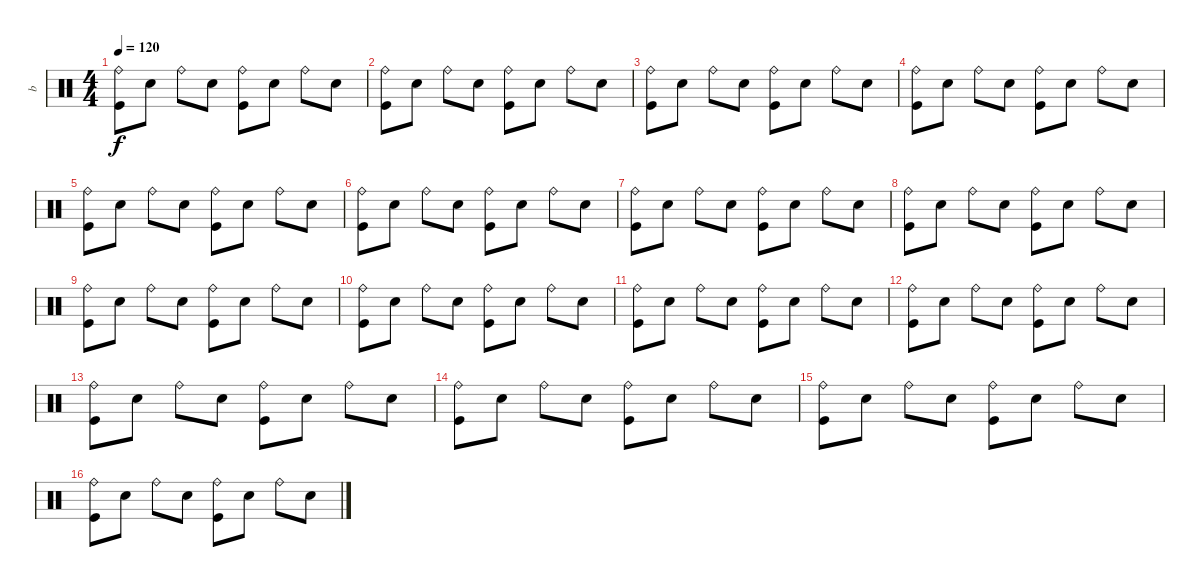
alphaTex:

\track ("b" "b") {instrument percussion}
\staff {score}
\articulation defaults
\ts (4 4)
\tempo 120
\clef neutral
\ks c
("Ride (bell)" "Kick (hit)").8{dy f} "Electric Snare (hit)".8 "Ride (bell)".8 "Electric Snare (hit)".8 ("Ride (bell)" "Kick (hit)").8 "Electric Snare (hit)".8 "Ride (bell)".8 "Electric Snare (hit)".8 |
("Ride (bell)" "Kick (hit)").8 "Electric Snare (hit)".8 "Ride (bell)".8 "Electric Snare (hit)".8 ("Ride (bell)" "Kick (hit)").8 "Electric Snare (hit)".8 "Ride (bell)".8 "Electric Snare (hit)".8 |
("Ride (bell)" "Kick (hit)").8 "Electric Snare (hit)".8 "Ride (bell)".8 "Electric Snare (hit)".8 ("Ride (bell)" "Kick (hit)").8 "Electric Snare (hit)".8 "Ride (bell)".8 "Electric Snare (hit)".8 |
("Ride (bell)" "Kick (hit)").8 "Electric Snare (hit)".8 "Ride (bell)".8 "Electric Snare (hit)".8 ("Ride (bell)" "Kick (hit)").8 "Electric Snare (hit)".8 "Ride (bell)".8 "Electric Snare (hit)".8 |
("Ride (bell)" "Kick (hit)").8 "Electric Snare (hit)".8 "Ride (bell)".8 "Electric Snare (hit)".8 ("Ride (bell)" "Kick (hit)").8 "Electric Snare (hit)".8 "Ride (bell)".8 "Electric Snare (hit)".8 |
("Ride (bell)" "Kick (hit)").8 "Electric Snare (hit)".8 "Ride (bell)".8 "Electric Snare (hit)".8 ("Ride (bell)" "Kick (hit)").8 "Electric Snare (hit)".8 "Ride (bell)".8 "Electric Snare (hit)".8 |
("Ride (bell)" "Kick (hit)").8 "Electric Snare (hit)".8 "Ride (bell)".8 "Electric Snare (hit)".8 ("Ride (bell)" "Kick (hit)").8 "Electric Snare (hit)".8 "Ride (bell)".8 "Electric Snare (hit)".8 |
("Ride (bell)" "Kick (hit)").8 "Electric Snare (hit)".8 "Ride (bell)".8 "Electric Snare (hit)".8 ("Ride (bell)" "Kick (hit)").8 "Electric Snare (hit)".8 "Ride (bell)".8 "Electric Snare (hit)".8 |
("Ride (bell)" "Kick (hit)").8 "Electric Snare (hit)".8 "Ride (bell)".8 "Electric Snare (hit)".8 ("Ride (bell)" "Kick (hit)").8 "Electric Snare (hit)".8 "Ride (bell)".8 "Electric Snare (hit)".8 |
("Ride (bell)" "Kick (hit)").8 "Electric Snare (hit)".8 "Ride (bell)".8 "Electric Snare (hit)".8 ("Ride (bell)" "Kick (hit)").8 "Electric Snare (hit)".8 "Ride (bell)".8 "Electric Snare (hit)".8 |
("Ride (bell)" "Kick (hit)").8 "Electric Snare (hit)".8 "Ride (bell)".8 "Electric Snare (hit)".8 ("Ride (bell)" "Kick (hit)").8 "Electric Snare (hit)".8 "Ride (bell)".8 "Electric Snare (hit)".8 |
("Ride (bell)" "Kick (hit)").8 "Electric Snare (hit)".8 "Ride (bell)".8 "Electric Snare (hit)".8 ("Ride (bell)" "Kick (hit)").8 "Electric Snare (hit)".8 "Ride (bell)".8 "Electric Snare (hit)".8 |
("Ride (bell)" "Kick (hit)").8 "Electric Snare (hit)".8 "Ride (bell)".8 "Electric Snare (hit)".8 ("Ride (bell)" "Kick (hit)").8 "Electric Snare (hit)".8 "Ride (bell)".8 "Electric Snare (hit)".8 |
("Ride (bell)" "Kick (hit)").8 "Electric Snare (hit)".8 "Ride (bell)".8 "Electric Snare (hit)".8 ("Ride (bell)" "Kick (hit)").8 "Electric Snare (hit)".8 "Ride (bell)".8 "Electric Snare (hit)".8 |
("Ride (bell)" "Kick (hit)").8 "Electric Snare (hit)".8 "Ride (bell)".8 "Electric Snare (hit)".8 ("Ride (bell)" "Kick (hit)").8 "Electric Snare (hit)".8 "Ride (bell)".8 "Electric Snare (hit)".8 |
("Ride (bell)" "Kick (hit)").8 "Electric Snare (hit)".8 "Ride (bell)".8 "Electric Snare (hit)".8 ("Ride (bell)" "Kick (hit)").8 "Electric Snare (hit)".8 "Ride (bell)".8 "Electric Snare (hit)".8
